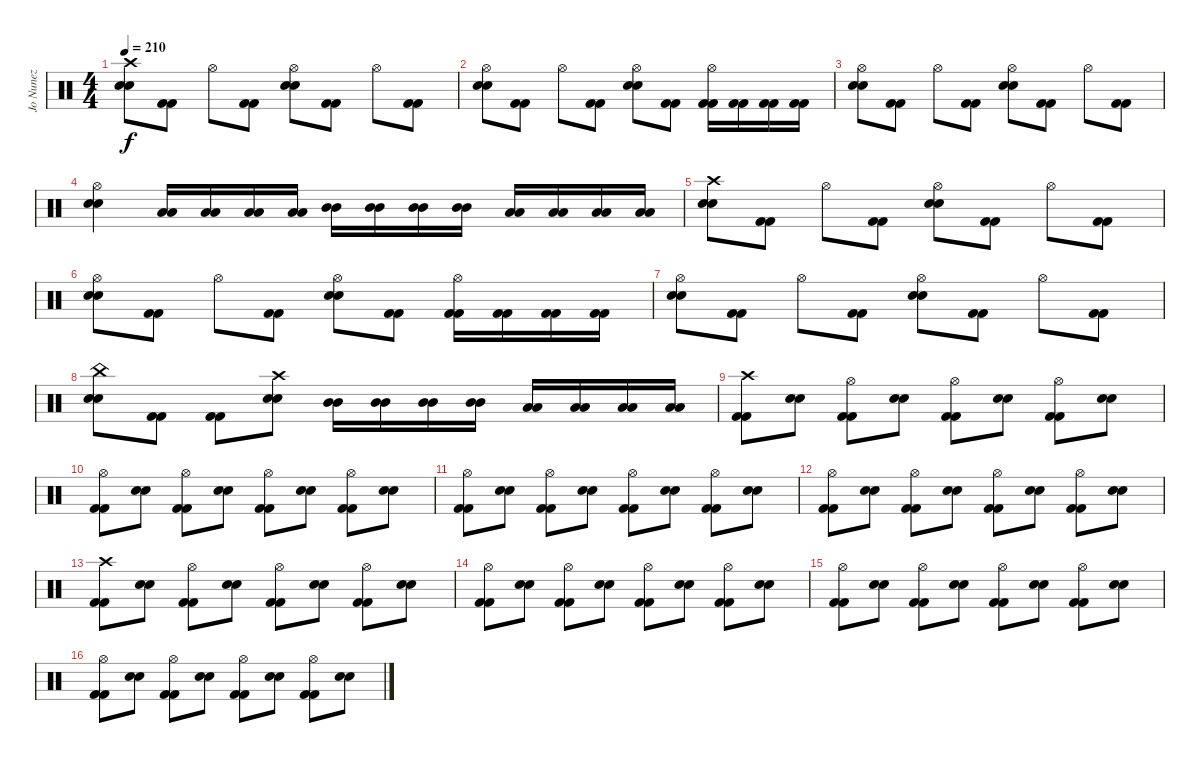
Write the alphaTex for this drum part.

\track ("Jo Nunez" "Jo Nunez") {instrument percussion}
\staff {score}
\articulation defaults
\ts (4 4)
\tempo 210
\clef neutral
\ks c
("Electric Snare (hit)" "Electric Snare (hit)" "Crash high (hit)").8{dy f} ("Kick (hit) 2" "Kick (hit) 2").8 "Hi-Hat (open)".8 ("Kick (hit) 2" "Kick (hit) 2").8 ("Electric Snare (hit)" "Electric Snare (hit)" "Hi-Hat (open)").8 ("Kick (hit) 2" "Kick (hit) 2").8 "Hi-Hat (open)".8 ("Kick (hit) 2" "Kick (hit) 2").8 |
("Electric Snare (hit)" "Electric Snare (hit)" "Hi-Hat (open)").8 ("Kick (hit) 2" "Kick (hit) 2").8 "Hi-Hat (open)".8 ("Kick (hit) 2" "Kick (hit) 2").8 ("Electric Snare (hit)" "Electric Snare (hit)" "Hi-Hat (open)").8 ("Kick (hit) 2" "Kick (hit) 2").8 ("Kick (hit) 2" "Kick (hit) 2" "Hi-Hat (open)").16 ("Kick (hit) 2" "Kick (hit) 2").16 ("Kick (hit) 2" "Kick (hit) 2").16 ("Kick (hit) 2" "Kick (hit) 2").16 |
("Electric Snare (hit)" "Electric Snare (hit)" "Hi-Hat (open)").8 ("Kick (hit) 2" "Kick (hit) 2").8 "Hi-Hat (open)".8 ("Kick (hit) 2" "Kick (hit) 2").8 ("Electric Snare (hit)" "Electric Snare (hit)" "Hi-Hat (open)").8 ("Kick (hit) 2" "Kick (hit) 2").8 "Hi-Hat (open)".8 ("Kick (hit) 2" "Kick (hit) 2").8 |
("Electric Snare (hit)" "Electric Snare (hit)" "Hi-Hat (open)").4 ("Low Tom (hit)" "Low Tom (hit)").16 ("Low Tom (hit)" "Low Tom (hit)").16 ("Low Tom (hit)" "Low Tom (hit)").16 ("Low Tom (hit)" "Low Tom (hit)").16 ("Mid Tom (hit)" "Mid Tom (hit)").16 ("Mid Tom (hit)" "Mid Tom (hit)").16 ("Mid Tom (hit)" "Mid Tom (hit)").16 ("Mid Tom (hit)" "Mid Tom (hit)").16 ("Low Floor Tom (hit)" "Low Floor Tom (hit)").16 ("Low Floor Tom (hit)" "Low Floor Tom (hit)").16 ("Low Floor Tom (hit)" "Low Floor Tom (hit)").16 ("Low Floor Tom (hit)" "Low Floor Tom (hit)").16 |
("Electric Snare (hit)" "Electric Snare (hit)" "Crash high (hit)").8 ("Kick (hit) 2" "Kick (hit) 2").8 "Hi-Hat (open)".8 ("Kick (hit) 2" "Kick (hit) 2").8 ("Electric Snare (hit)" "Electric Snare (hit)" "Hi-Hat (open)").8 ("Kick (hit) 2" "Kick (hit) 2").8 "Hi-Hat (open)".8 ("Kick (hit) 2" "Kick (hit) 2").8 |
("Electric Snare (hit)" "Electric Snare (hit)" "Hi-Hat (open)").8 ("Kick (hit) 2" "Kick (hit) 2").8 "Hi-Hat (open)".8 ("Kick (hit) 2" "Kick (hit) 2").8 ("Electric Snare (hit)" "Electric Snare (hit)" "Hi-Hat (open)").8 ("Kick (hit) 2" "Kick (hit) 2").8 ("Kick (hit) 2" "Kick (hit) 2" "Hi-Hat (open)").16 ("Kick (hit) 2" "Kick (hit) 2").16 ("Kick (hit) 2" "Kick (hit) 2").16 ("Kick (hit) 2" "Kick (hit) 2").16 |
("Electric Snare (hit)" "Electric Snare (hit)" "Hi-Hat (open)").8 ("Kick (hit) 2" "Kick (hit) 2").8 "Hi-Hat (open)".8 ("Kick (hit) 2" "Kick (hit) 2").8 ("Electric Snare (hit)" "Electric Snare (hit)" "Hi-Hat (open)").8 ("Kick (hit) 2" "Kick (hit) 2").8 "Hi-Hat (open)".8 ("Kick (hit) 2" "Kick (hit) 2").8 |
("Electric Snare (hit)" "Electric Snare (hit)" "China (hit)").8 ("Kick (hit) 2" "Kick (hit) 2").8 ("Kick (hit) 2" "Kick (hit) 2").8 ("Electric Snare (hit)" "Electric Snare (hit)" "Crash high (hit)").8 ("Mid Tom (hit)" "Mid Tom (hit)").16 ("Mid Tom (hit)" "Mid Tom (hit)").16 ("Mid Tom (hit)" "Mid Tom (hit)").16 ("Mid Tom (hit)" "Mid Tom (hit)").16 ("Low Tom (hit)" "Low Tom (hit)").16 ("Low Tom (hit)" "Low Tom (hit)").16 ("Low Tom (hit)" "Low Tom (hit)").16 ("Low Tom (hit)" "Low Tom (hit)").16 |
("Kick (hit) 2" "Kick (hit) 2" "Crash high (hit)").8 ("Electric Snare (hit)" "Electric Snare (hit)").8 ("Kick (hit) 2" "Kick (hit) 2" "Hi-Hat (open)").8 ("Electric Snare (hit)" "Electric Snare (hit)").8 ("Kick (hit) 2" "Kick (hit) 2" "Hi-Hat (open)").8 ("Electric Snare (hit)" "Electric Snare (hit)").8 ("Kick (hit) 2" "Kick (hit) 2" "Hi-Hat (open)").8 ("Electric Snare (hit)" "Electric Snare (hit)").8 |
("Kick (hit) 2" "Kick (hit) 2" "Hi-Hat (open)").8 ("Electric Snare (hit)" "Electric Snare (hit)").8 ("Kick (hit) 2" "Kick (hit) 2" "Hi-Hat (open)").8 ("Electric Snare (hit)" "Electric Snare (hit)").8 ("Kick (hit) 2" "Kick (hit) 2" "Hi-Hat (open)").8 ("Electric Snare (hit)" "Electric Snare (hit)").8 ("Kick (hit) 2" "Kick (hit) 2" "Hi-Hat (open)").8 ("Electric Snare (hit)" "Electric Snare (hit)").8 |
("Kick (hit) 2" "Kick (hit) 2" "Hi-Hat (open)").8 ("Electric Snare (hit)" "Electric Snare (hit)").8 ("Kick (hit) 2" "Kick (hit) 2" "Hi-Hat (open)").8 ("Electric Snare (hit)" "Electric Snare (hit)").8 ("Kick (hit) 2" "Kick (hit) 2" "Hi-Hat (open)").8 ("Electric Snare (hit)" "Electric Snare (hit)").8 ("Kick (hit) 2" "Kick (hit) 2" "Hi-Hat (open)").8 ("Electric Snare (hit)" "Electric Snare (hit)").8 |
("Kick (hit) 2" "Kick (hit) 2" "Hi-Hat (open)").8 ("Electric Snare (hit)" "Electric Snare (hit)").8 ("Kick (hit) 2" "Kick (hit) 2" "Hi-Hat (open)").8 ("Electric Snare (hit)" "Electric Snare (hit)").8 ("Kick (hit) 2" "Kick (hit) 2" "Hi-Hat (open)").8 ("Electric Snare (hit)" "Electric Snare (hit)").8 ("Kick (hit) 2" "Kick (hit) 2" "Hi-Hat (open)").8 ("Electric Snare (hit)" "Electric Snare (hit)").8 |
("Kick (hit) 2" "Kick (hit) 2" "Crash high (hit)").8 ("Electric Snare (hit)" "Electric Snare (hit)").8 ("Kick (hit) 2" "Kick (hit) 2" "Hi-Hat (open)").8 ("Electric Snare (hit)" "Electric Snare (hit)").8 ("Kick (hit) 2" "Kick (hit) 2" "Hi-Hat (open)").8 ("Electric Snare (hit)" "Electric Snare (hit)").8 ("Kick (hit) 2" "Kick (hit) 2" "Hi-Hat (open)").8 ("Electric Snare (hit)" "Electric Snare (hit)").8 |
("Kick (hit) 2" "Kick (hit) 2" "Hi-Hat (open)").8 ("Electric Snare (hit)" "Electric Snare (hit)").8 ("Kick (hit) 2" "Kick (hit) 2" "Hi-Hat (open)").8 ("Electric Snare (hit)" "Electric Snare (hit)").8 ("Kick (hit) 2" "Kick (hit) 2" "Hi-Hat (open)").8 ("Electric Snare (hit)" "Electric Snare (hit)").8 ("Kick (hit) 2" "Kick (hit) 2" "Hi-Hat (open)").8 ("Electric Snare (hit)" "Electric Snare (hit)").8 |
("Kick (hit) 2" "Kick (hit) 2" "Hi-Hat (open)").8 ("Electric Snare (hit)" "Electric Snare (hit)").8 ("Kick (hit) 2" "Kick (hit) 2" "Hi-Hat (open)").8 ("Electric Snare (hit)" "Electric Snare (hit)").8 ("Kick (hit) 2" "Kick (hit) 2" "Hi-Hat (open)").8 ("Electric Snare (hit)" "Electric Snare (hit)").8 ("Kick (hit) 2" "Kick (hit) 2" "Hi-Hat (open)").8 ("Electric Snare (hit)" "Electric Snare (hit)").8 |
("Kick (hit) 2" "Kick (hit) 2" "Hi-Hat (open)").8 ("Electric Snare (hit)" "Electric Snare (hit)").8 ("Kick (hit) 2" "Kick (hit) 2" "Hi-Hat (open)").8 ("Electric Snare (hit)" "Electric Snare (hit)").8 ("Kick (hit) 2" "Kick (hit) 2" "Hi-Hat (open)").8 ("Electric Snare (hit)" "Electric Snare (hit)").8 ("Kick (hit) 2" "Kick (hit) 2" "Hi-Hat (open)").8 ("Electric Snare (hit)" "Electric Snare (hit)").8
